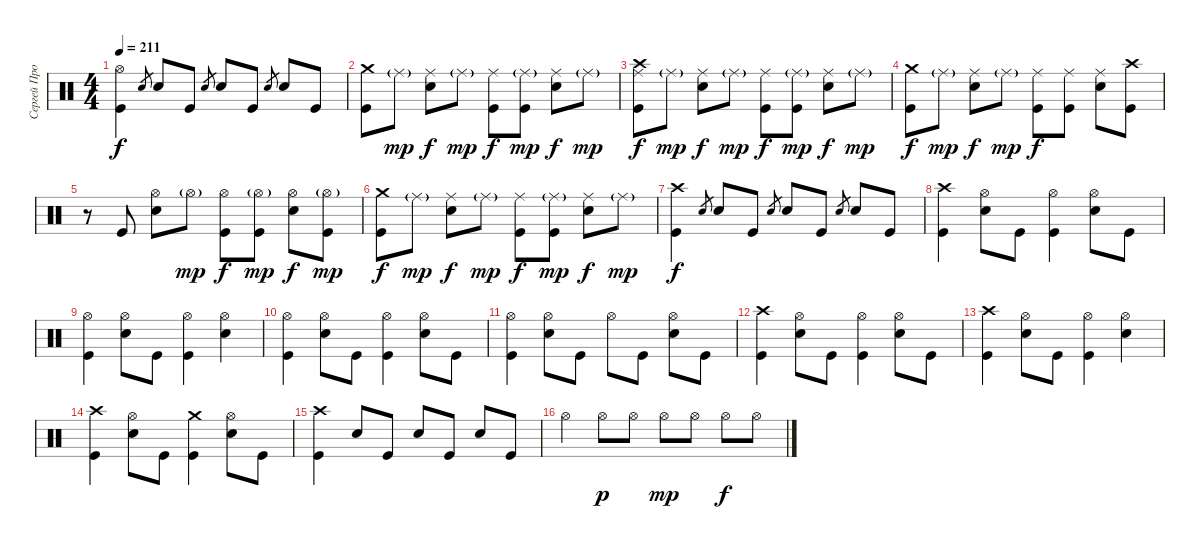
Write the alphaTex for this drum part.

\track ("Сергей Прокофьев" "Сергей Про") {instrument percussion}
\staff {score}
\articulation defaults
\ts (4 4)
\tempo 211
\clef neutral
\ks c
("Hi-Hat (open)" "Kick (hit)").4{dy f} "Electric Snare (hit)".8{gr} "Electric Snare (hit)".8 "Kick (hit)".8 "Electric Snare (hit)".8{gr} "Electric Snare (hit)".8 "Kick (hit)".8 "Electric Snare (hit)".8{gr} "Electric Snare (hit)".8 "Kick (hit)".8 |
("Crash medium (hit)" "Kick (hit)").8 "Ride (middle)"{g}.8{dy mp} ("Ride (middle)" "Electric Snare (hit)").8{dy f} "Ride (middle)"{g}.8{dy mp} ("Ride (middle)" "Kick (hit)").8{dy f} ("Ride (middle)"{g} "Kick (hit)").8{dy mp} ("Ride (middle)" "Electric Snare (hit)").8{dy f} "Ride (middle)"{g}.8{dy mp} |
("Crash high (hit)" "Ride (middle)" "Kick (hit)").8{dy f} "Ride (middle)"{g}.8{dy mp} ("Ride (middle)" "Electric Snare (hit)").8{dy f} "Ride (middle)"{g}.8{dy mp} ("Ride (middle)" "Kick (hit)").8{dy f} ("Ride (middle)"{g} "Kick (hit)").8{dy mp} ("Ride (middle)" "Electric Snare (hit)").8{dy f} "Ride (middle)"{g}.8{dy mp} |
("Crash medium (hit)" "Kick (hit)").8{dy f} "Ride (middle)"{g}.8{dy mp} ("Ride (middle)" "Electric Snare (hit)").8{dy f} "Ride (middle)"{g}.8{dy mp} ("Ride (middle)" "Kick (hit)").8{dy f} ("Ride (middle)" "Kick (hit)").8 ("Ride (middle)" "Electric Snare (hit)").8 ("Crash high (hit)" "Kick (hit)").8 |
r.8 "Kick (hit)".8 ("Hi-Hat (open)" "Electric Snare (hit)").8 "Hi-Hat (open)"{g}.8{dy mp} ("Hi-Hat (open)" "Kick (hit)").8{dy f} ("Hi-Hat (open)"{g} "Kick (hit)").8{dy mp} ("Hi-Hat (open)" "Electric Snare (hit)").8{dy f} ("Hi-Hat (open)"{g} "Kick (hit)").8{dy mp} |
("Crash medium (hit)" "Kick (hit)").8{dy f} "Ride (middle)"{g}.8{dy mp} ("Ride (middle)" "Electric Snare (hit)").8{dy f} "Ride (middle)"{g}.8{dy mp} ("Ride (middle)" "Kick (hit)").8{dy f} ("Ride (middle)"{g} "Kick (hit)").8{dy mp} ("Ride (middle)" "Electric Snare (hit)").8{dy f} "Ride (middle)"{g}.8{dy mp} |
("Crash high (hit)" "Kick (hit)").4{dy f} "Electric Snare (hit)".8{gr} "Electric Snare (hit)".8 "Kick (hit)".8 "Electric Snare (hit)".8{gr} "Electric Snare (hit)".8 "Kick (hit)".8 "Electric Snare (hit)".8{gr} "Electric Snare (hit)".8 "Kick (hit)".8 |
("Crash high (hit)" "Kick (hit)").4 ("Hi-Hat (open)" "Electric Snare (hit)").8 "Kick (hit)".8 ("Hi-Hat (open)" "Kick (hit)").4 ("Hi-Hat (open)" "Electric Snare (hit)").8 "Kick (hit)".8 |
("Hi-Hat (open)" "Kick (hit)").4 ("Hi-Hat (open)" "Electric Snare (hit)").8 "Kick (hit)".8 ("Hi-Hat (open)" "Kick (hit)").4 ("Hi-Hat (open)" "Electric Snare (hit)").4 |
("Hi-Hat (open)" "Kick (hit)").4 ("Hi-Hat (open)" "Electric Snare (hit)").8 "Kick (hit)".8 ("Hi-Hat (open)" "Kick (hit)").4 ("Hi-Hat (open)" "Electric Snare (hit)").8 "Kick (hit)".8 |
("Hi-Hat (open)" "Kick (hit)").4 ("Hi-Hat (open)" "Electric Snare (hit)").8 "Kick (hit)".8 "Hi-Hat (open)".8 "Kick (hit)".8 ("Hi-Hat (open)" "Electric Snare (hit)").8 "Kick (hit)".8 |
("Crash high (hit)" "Kick (hit)").4 ("Hi-Hat (open)" "Electric Snare (hit)").8 "Kick (hit)".8 ("Hi-Hat (open)" "Kick (hit)").4 ("Hi-Hat (open)" "Electric Snare (hit)").8 "Kick (hit)".8 |
("Crash high (hit)" "Kick (hit)").4 ("Hi-Hat (open)" "Electric Snare (hit)").8 "Kick (hit)".8 ("Hi-Hat (open)" "Kick (hit)").4 ("Hi-Hat (open)" "Electric Snare (hit)").4 |
("Crash high (hit)" "Kick (hit)").4 ("Hi-Hat (open)" "Electric Snare (hit)").8 "Kick (hit)".8 ("Crash medium (hit)" "Kick (hit)").4 ("Hi-Hat (open)" "Electric Snare (hit)").8 "Kick (hit)".8 |
("Crash high (hit)" "Kick (hit)").4 "Electric Snare (hit)".8 "Kick (hit)".8 "Electric Snare (hit)".8 "Kick (hit)".8 "Electric Snare (hit)".8 "Kick (hit)".8 |
"Hi-Hat (open)".4 "Hi-Hat (open)".8{dy p} "Hi-Hat (open)".8 "Hi-Hat (open)".8{dy mp} "Hi-Hat (open)".8 "Hi-Hat (open)".8{dy f} "Hi-Hat (open)".8
